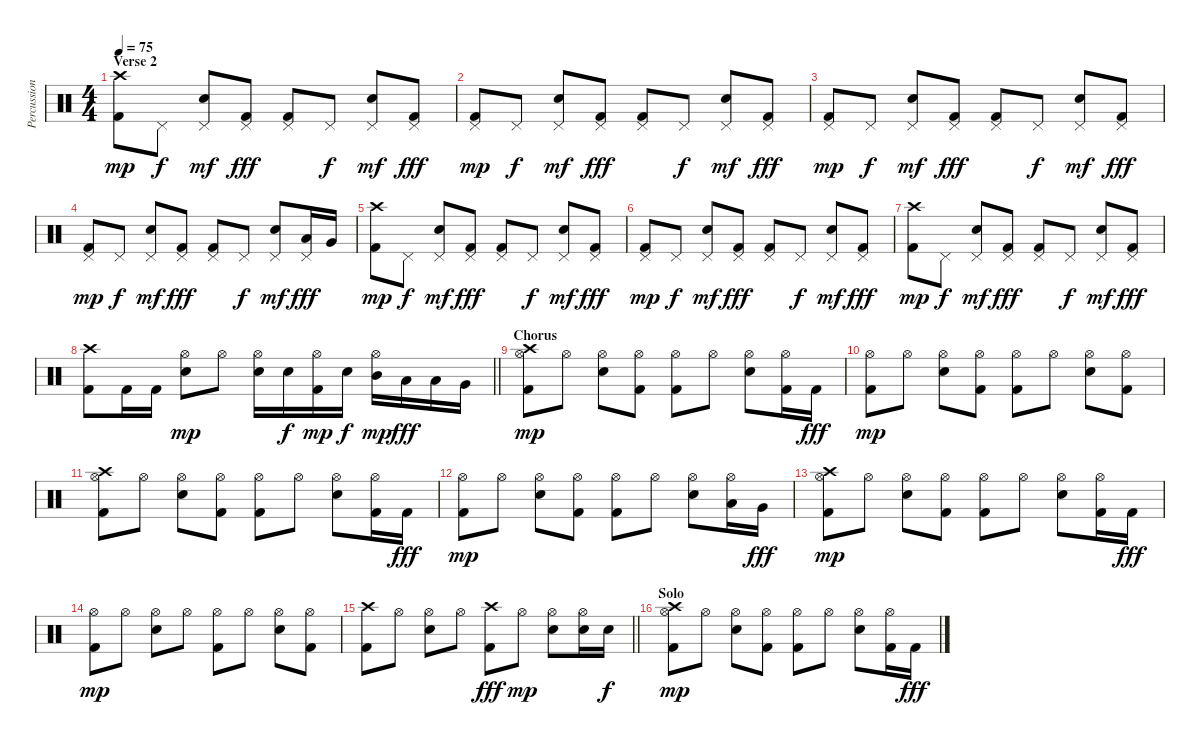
\track ("Percussion" "Percussion") {instrument percussion}
\staff {score}
\articulation defaults
\ts (4 4)
\section ("" "Verse 2")
\tempo 75
\clef neutral
\ks c
("Kick (hit) 2" "Crash high (hit)").8{dy mp} "Pedal Hi-Hat (hit)".8{dy f} ("Electric Snare (hit)" "Pedal Hi-Hat (hit)").8{dy mf} ("Kick (hit) 2" "Pedal Hi-Hat (hit)").8{dy fff} ("Kick (hit) 2" "Pedal Hi-Hat (hit)").8 "Pedal Hi-Hat (hit)".8{dy f} ("Electric Snare (hit)" "Pedal Hi-Hat (hit)").8{dy mf} ("Kick (hit) 2" "Pedal Hi-Hat (hit)").8{dy fff} |
("Kick (hit) 2" "Pedal Hi-Hat (hit)").8{dy mp} "Pedal Hi-Hat (hit)".8{dy f} ("Electric Snare (hit)" "Pedal Hi-Hat (hit)").8{dy mf} ("Kick (hit) 2" "Pedal Hi-Hat (hit)").8{dy fff} ("Kick (hit) 2" "Pedal Hi-Hat (hit)").8 "Pedal Hi-Hat (hit)".8{dy f} ("Electric Snare (hit)" "Pedal Hi-Hat (hit)").8{dy mf} ("Kick (hit) 2" "Pedal Hi-Hat (hit)").8{dy fff} |
("Kick (hit) 2" "Pedal Hi-Hat (hit)").8{dy mp} "Pedal Hi-Hat (hit)".8{dy f} ("Electric Snare (hit)" "Pedal Hi-Hat (hit)").8{dy mf} ("Kick (hit) 2" "Pedal Hi-Hat (hit)").8{dy fff} ("Kick (hit) 2" "Pedal Hi-Hat (hit)").8 "Pedal Hi-Hat (hit)".8{dy f} ("Electric Snare (hit)" "Pedal Hi-Hat (hit)").8{dy mf} ("Kick (hit) 2" "Pedal Hi-Hat (hit)").8{dy fff} |
("Kick (hit) 2" "Pedal Hi-Hat (hit)").8{dy mp} "Pedal Hi-Hat (hit)".8{dy f} ("Electric Snare (hit)" "Pedal Hi-Hat (hit)").8{dy mf} ("Kick (hit) 2" "Pedal Hi-Hat (hit)").8{dy fff} ("Kick (hit) 2" "Pedal Hi-Hat (hit)").8 "Pedal Hi-Hat (hit)".8{dy f} ("Electric Snare (hit)" "Pedal Hi-Hat (hit)").8{dy mf} ("Low Tom (hit)" "Pedal Hi-Hat (hit)").16{dy fff} "Very Low Tom (hit)".16 |
("Kick (hit) 2" "Crash high (hit)").8{dy mp} "Pedal Hi-Hat (hit)".8{dy f} ("Electric Snare (hit)" "Pedal Hi-Hat (hit)").8{dy mf} ("Kick (hit) 2" "Pedal Hi-Hat (hit)").8{dy fff} ("Kick (hit) 2" "Pedal Hi-Hat (hit)").8 "Pedal Hi-Hat (hit)".8{dy f} ("Electric Snare (hit)" "Pedal Hi-Hat (hit)").8{dy mf} ("Kick (hit) 2" "Pedal Hi-Hat (hit)").8{dy fff} |
("Kick (hit) 2" "Pedal Hi-Hat (hit)").8{dy mp} "Pedal Hi-Hat (hit)".8{dy f} ("Electric Snare (hit)" "Pedal Hi-Hat (hit)").8{dy mf} ("Kick (hit) 2" "Pedal Hi-Hat (hit)").8{dy fff} ("Kick (hit) 2" "Pedal Hi-Hat (hit)").8 "Pedal Hi-Hat (hit)".8{dy f} ("Electric Snare (hit)" "Pedal Hi-Hat (hit)").8{dy mf} ("Kick (hit) 2" "Pedal Hi-Hat (hit)").8{dy fff} |
("Kick (hit) 2" "Crash high (hit)").8{dy mp} "Pedal Hi-Hat (hit)".8{dy f} ("Electric Snare (hit)" "Pedal Hi-Hat (hit)").8{dy mf} ("Kick (hit) 2" "Pedal Hi-Hat (hit)").8{dy fff} ("Kick (hit) 2" "Pedal Hi-Hat (hit)").8 "Pedal Hi-Hat (hit)".8{dy f} ("Electric Snare (hit)" "Pedal Hi-Hat (hit)").8{dy mf} ("Kick (hit) 2" "Pedal Hi-Hat (hit)").8{dy fff} |
\barLineRight lightlight
("Kick (hit) 2" "Crash high (hit)").8 "Kick (hit) 2".16 "Kick (hit) 2".16 ("Electric Snare (hit)" "Hi-Hat (open)").8{dy mp} "Hi-Hat (open)".8 ("Electric Snare (hit)" "Hi-Hat (open)").16 "Electric Snare (hit)".16{dy f} ("Kick (hit) 2" "Hi-Hat (open)").16{dy mp} "Electric Snare (hit)".16{dy f} ("Mid Tom (hit)" "Hi-Hat (open)").16{dy mp} "Low Tom (hit)".16{dy fff} "Low Tom (hit)".16 "Very Low Tom (hit)".16 |
\section ("" "Chorus")
("Kick (hit) 2" "Hi-Hat (open)" "Crash high (hit)").8{dy mp} "Hi-Hat (open)".8 ("Electric Snare (hit)" "Hi-Hat (open)").8 ("Kick (hit) 2" "Hi-Hat (open)").8 ("Kick (hit) 2" "Hi-Hat (open)").8 "Hi-Hat (open)".8 ("Electric Snare (hit)" "Hi-Hat (open)").8 ("Kick (hit) 2" "Hi-Hat (open)").16 "Kick (hit) 2".16{dy fff} |
("Kick (hit) 2" "Hi-Hat (open)").8{dy mp} "Hi-Hat (open)".8 ("Electric Snare (hit)" "Hi-Hat (open)").8 ("Kick (hit) 2" "Hi-Hat (open)").8 ("Kick (hit) 2" "Hi-Hat (open)").8 "Hi-Hat (open)".8 ("Electric Snare (hit)" "Hi-Hat (open)").8 ("Kick (hit) 2" "Hi-Hat (open)").8 |
("Kick (hit) 2" "Hi-Hat (open)" "Crash high (hit)").8 "Hi-Hat (open)".8 ("Electric Snare (hit)" "Hi-Hat (open)").8 ("Kick (hit) 2" "Hi-Hat (open)").8 ("Kick (hit) 2" "Hi-Hat (open)").8 "Hi-Hat (open)".8 ("Electric Snare (hit)" "Hi-Hat (open)").8 ("Kick (hit) 2" "Hi-Hat (open)").16 "Kick (hit) 2".16{dy fff} |
("Kick (hit) 2" "Hi-Hat (open)").8{dy mp} "Hi-Hat (open)".8 ("Electric Snare (hit)" "Hi-Hat (open)").8 ("Kick (hit) 2" "Hi-Hat (open)").8 ("Kick (hit) 2" "Hi-Hat (open)").8 "Hi-Hat (open)".8 ("Electric Snare (hit)" "Hi-Hat (open)").8 ("Low Tom (hit)" "Hi-Hat (open)").16 "Very Low Tom (hit)".16{dy fff} |
("Kick (hit) 2" "Hi-Hat (open)" "Crash high (hit)").8{dy mp} "Hi-Hat (open)".8 ("Electric Snare (hit)" "Hi-Hat (open)").8 ("Kick (hit) 2" "Hi-Hat (open)").8 ("Kick (hit) 2" "Hi-Hat (open)").8 "Hi-Hat (open)".8 ("Electric Snare (hit)" "Hi-Hat (open)").8 ("Kick (hit) 2" "Hi-Hat (open)").16 "Kick (hit) 2".16{dy fff} |
("Kick (hit) 2" "Hi-Hat (open)").8{dy mp} "Hi-Hat (open)".8 ("Electric Snare (hit)" "Hi-Hat (open)").8 "Hi-Hat (open)".8 ("Kick (hit) 2" "Hi-Hat (open)").8 "Hi-Hat (open)".8 ("Electric Snare (hit)" "Hi-Hat (open)").8 ("Kick (hit) 2" "Hi-Hat (open)").8 |
\barLineRight lightlight
("Kick (hit) 2" "Crash high (hit)").8 "Hi-Hat (open)".8 ("Electric Snare (hit)" "Hi-Hat (open)").8 "Hi-Hat (open)".8 ("Kick (hit) 2" "Crash high (hit)").8{dy fff} "Hi-Hat (open)".8{dy mp} ("Electric Snare (hit)" "Hi-Hat (open)").8 ("Electric Snare (hit)" "Hi-Hat (open)").16 "Electric Snare (hit)".16{dy f} |
\section ("" "Solo")
("Kick (hit) 2" "Hi-Hat (open)" "Crash high (hit)").8{dy mp} "Hi-Hat (open)".8 ("Electric Snare (hit)" "Hi-Hat (open)").8 ("Kick (hit) 2" "Hi-Hat (open)").8 ("Kick (hit) 2" "Hi-Hat (open)").8 "Hi-Hat (open)".8 ("Electric Snare (hit)" "Hi-Hat (open)").8 ("Kick (hit) 2" "Hi-Hat (open)").16 "Kick (hit) 2".16{dy fff}
